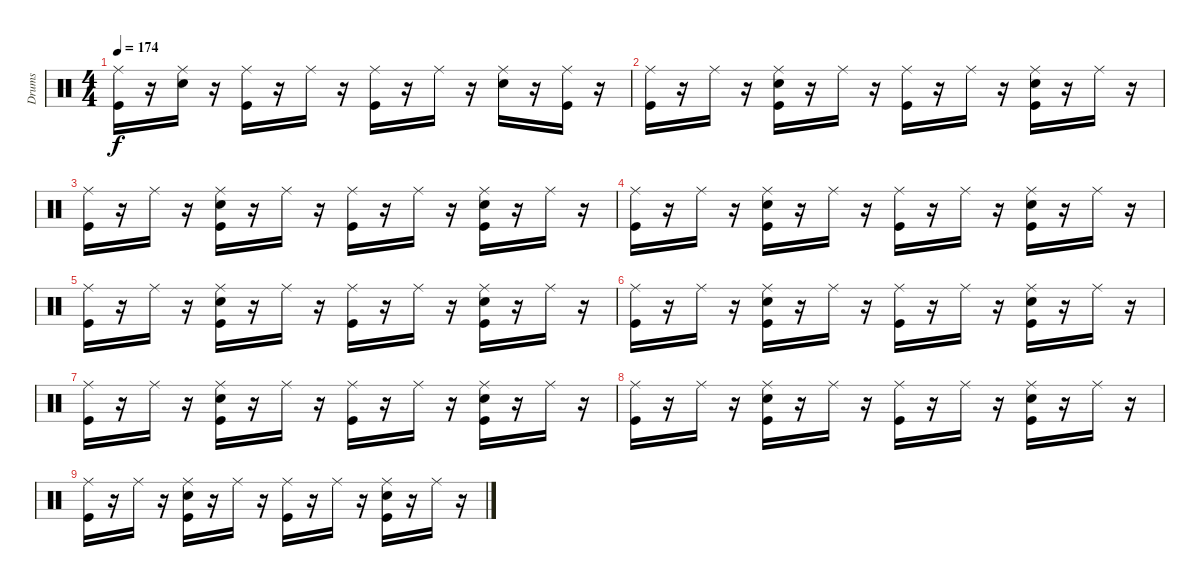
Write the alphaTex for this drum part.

\track ("Drums" "Drums") {instrument percussion}
\staff {score}
\articulation defaults
\ts (4 4)
\tempo 174
\clef neutral
\ks c
("Kick (hit)" "Ride (middle)").16{dy f} r.16 ("Snare (hit) 2" "Ride (middle)").16 r.16 ("Kick (hit)" "Ride (middle)").16 r.16 "Ride (middle)".16 r.16 ("Kick (hit)" "Ride (middle)").16 r.16 "Ride (middle)".16 r.16 ("Snare (hit) 2" "Ride (middle)").16 r.16 ("Kick (hit)" "Ride (middle)").16 r.16 |
("Kick (hit)" "Ride (middle)").16 r.16 "Ride (middle)".16 r.16 ("Kick (hit)" "Snare (hit) 2" "Ride (middle)").16 r.16 "Ride (middle)".16 r.16 ("Kick (hit)" "Ride (middle)").16 r.16 "Ride (middle)".16 r.16 ("Kick (hit)" "Snare (hit) 2" "Ride (middle)").16 r.16 "Ride (middle)".16 r.16 |
("Kick (hit)" "Ride (middle)").16 r.16 "Ride (middle)".16 r.16 ("Kick (hit)" "Snare (hit) 2" "Ride (middle)").16 r.16 "Ride (middle)".16 r.16 ("Kick (hit)" "Ride (middle)").16 r.16 "Ride (middle)".16 r.16 ("Kick (hit)" "Snare (hit) 2" "Ride (middle)").16 r.16 "Ride (middle)".16 r.16 |
("Kick (hit)" "Ride (middle)").16 r.16 "Ride (middle)".16 r.16 ("Kick (hit)" "Snare (hit) 2" "Ride (middle)").16 r.16 "Ride (middle)".16 r.16 ("Kick (hit)" "Ride (middle)").16 r.16 "Ride (middle)".16 r.16 ("Kick (hit)" "Snare (hit) 2" "Ride (middle)").16 r.16 "Ride (middle)".16 r.16 |
("Kick (hit)" "Ride (middle)").16 r.16 "Ride (middle)".16 r.16 ("Kick (hit)" "Snare (hit) 2" "Ride (middle)").16 r.16 "Ride (middle)".16 r.16 ("Kick (hit)" "Ride (middle)").16 r.16 "Ride (middle)".16 r.16 ("Kick (hit)" "Snare (hit) 2" "Ride (middle)").16 r.16 "Ride (middle)".16 r.16 |
("Kick (hit)" "Ride (middle)").16 r.16 "Ride (middle)".16 r.16 ("Kick (hit)" "Snare (hit) 2" "Ride (middle)").16 r.16 "Ride (middle)".16 r.16 ("Kick (hit)" "Ride (middle)").16 r.16 "Ride (middle)".16 r.16 ("Kick (hit)" "Snare (hit) 2" "Ride (middle)").16 r.16 "Ride (middle)".16 r.16 |
("Kick (hit)" "Ride (middle)").16 r.16 "Ride (middle)".16 r.16 ("Kick (hit)" "Snare (hit) 2" "Ride (middle)").16 r.16 "Ride (middle)".16 r.16 ("Kick (hit)" "Ride (middle)").16 r.16 "Ride (middle)".16 r.16 ("Kick (hit)" "Snare (hit) 2" "Ride (middle)").16 r.16 "Ride (middle)".16 r.16 |
("Kick (hit)" "Ride (middle)").16 r.16 "Ride (middle)".16 r.16 ("Kick (hit)" "Snare (hit) 2" "Ride (middle)").16 r.16 "Ride (middle)".16 r.16 ("Kick (hit)" "Ride (middle)").16 r.16 "Ride (middle)".16 r.16 ("Kick (hit)" "Snare (hit) 2" "Ride (middle)").16 r.16 "Ride (middle)".16 r.16 |
("Kick (hit)" "Ride (middle)").16 r.16 "Ride (middle)".16 r.16 ("Kick (hit)" "Snare (hit) 2" "Ride (middle)").16 r.16 "Ride (middle)".16 r.16 ("Kick (hit)" "Ride (middle)").16 r.16 "Ride (middle)".16 r.16 ("Kick (hit)" "Snare (hit) 2" "Ride (middle)").16 r.16 "Ride (middle)".16 r.16
